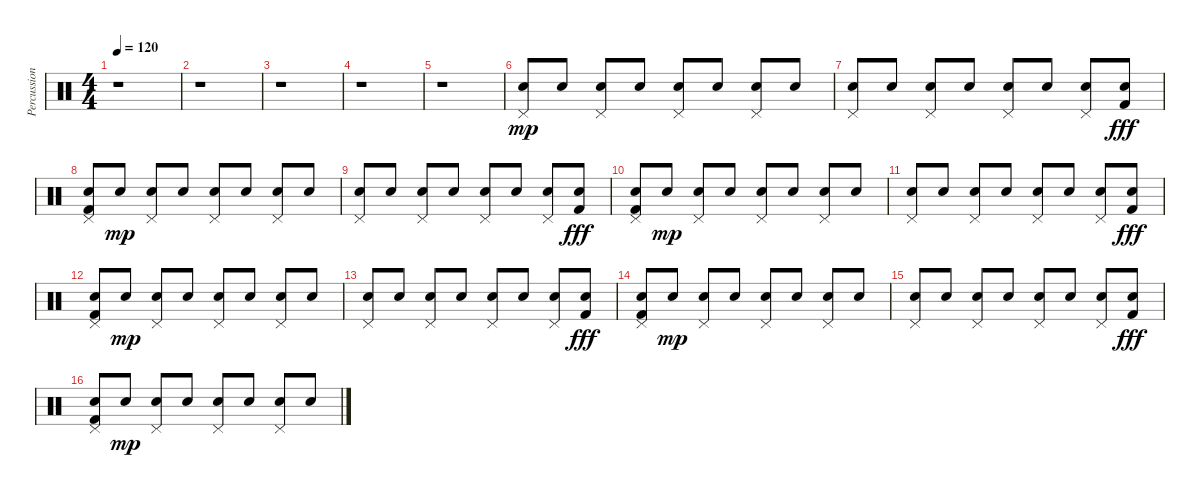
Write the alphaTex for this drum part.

\track ("Percussion" "Percussion") {instrument percussion}
\staff {score}
\articulation defaults
\ts (4 4)
\tempo 120
\clef neutral
\ks c
r.1{dy mp} |
r.1 |
r.1 |
r.1 |
r.1 |
("Pedal Hi-Hat (hit)" "Electric Snare (hit)").8 "Electric Snare (hit)".8 ("Pedal Hi-Hat (hit)" "Electric Snare (hit)").8 "Electric Snare (hit)".8 ("Pedal Hi-Hat (hit)" "Electric Snare (hit)").8 "Electric Snare (hit)".8 ("Pedal Hi-Hat (hit)" "Electric Snare (hit)").8 "Electric Snare (hit)".8 |
("Pedal Hi-Hat (hit)" "Electric Snare (hit)").8 "Electric Snare (hit)".8 ("Pedal Hi-Hat (hit)" "Electric Snare (hit)").8 "Electric Snare (hit)".8 ("Pedal Hi-Hat (hit)" "Electric Snare (hit)").8 "Electric Snare (hit)".8 ("Pedal Hi-Hat (hit)" "Electric Snare (hit)").8 ("Electric Snare (hit)" "Kick (hit) 2").8{dy fff} |
("Pedal Hi-Hat (hit)" "Electric Snare (hit)" "Kick (hit) 2").8 "Electric Snare (hit)".8{dy mp} ("Pedal Hi-Hat (hit)" "Electric Snare (hit)").8 "Electric Snare (hit)".8 ("Pedal Hi-Hat (hit)" "Electric Snare (hit)").8 "Electric Snare (hit)".8 ("Pedal Hi-Hat (hit)" "Electric Snare (hit)").8 "Electric Snare (hit)".8 |
("Pedal Hi-Hat (hit)" "Electric Snare (hit)").8 "Electric Snare (hit)".8 ("Pedal Hi-Hat (hit)" "Electric Snare (hit)").8 "Electric Snare (hit)".8 ("Pedal Hi-Hat (hit)" "Electric Snare (hit)").8 "Electric Snare (hit)".8 ("Pedal Hi-Hat (hit)" "Electric Snare (hit)").8 ("Electric Snare (hit)" "Kick (hit) 2").8{dy fff} |
("Pedal Hi-Hat (hit)" "Electric Snare (hit)" "Kick (hit) 2").8 "Electric Snare (hit)".8{dy mp} ("Pedal Hi-Hat (hit)" "Electric Snare (hit)").8 "Electric Snare (hit)".8 ("Pedal Hi-Hat (hit)" "Electric Snare (hit)").8 "Electric Snare (hit)".8 ("Pedal Hi-Hat (hit)" "Electric Snare (hit)").8 "Electric Snare (hit)".8 |
("Pedal Hi-Hat (hit)" "Electric Snare (hit)").8 "Electric Snare (hit)".8 ("Pedal Hi-Hat (hit)" "Electric Snare (hit)").8 "Electric Snare (hit)".8 ("Pedal Hi-Hat (hit)" "Electric Snare (hit)").8 "Electric Snare (hit)".8 ("Pedal Hi-Hat (hit)" "Electric Snare (hit)").8 ("Electric Snare (hit)" "Kick (hit) 2").8{dy fff} |
("Pedal Hi-Hat (hit)" "Electric Snare (hit)" "Kick (hit) 2").8 "Electric Snare (hit)".8{dy mp} ("Pedal Hi-Hat (hit)" "Electric Snare (hit)").8 "Electric Snare (hit)".8 ("Pedal Hi-Hat (hit)" "Electric Snare (hit)").8 "Electric Snare (hit)".8 ("Pedal Hi-Hat (hit)" "Electric Snare (hit)").8 "Electric Snare (hit)".8 |
("Pedal Hi-Hat (hit)" "Electric Snare (hit)").8 "Electric Snare (hit)".8 ("Pedal Hi-Hat (hit)" "Electric Snare (hit)").8 "Electric Snare (hit)".8 ("Pedal Hi-Hat (hit)" "Electric Snare (hit)").8 "Electric Snare (hit)".8 ("Pedal Hi-Hat (hit)" "Electric Snare (hit)").8 ("Electric Snare (hit)" "Kick (hit) 2").8{dy fff} |
("Pedal Hi-Hat (hit)" "Electric Snare (hit)" "Kick (hit) 2").8 "Electric Snare (hit)".8{dy mp} ("Pedal Hi-Hat (hit)" "Electric Snare (hit)").8 "Electric Snare (hit)".8 ("Pedal Hi-Hat (hit)" "Electric Snare (hit)").8 "Electric Snare (hit)".8 ("Pedal Hi-Hat (hit)" "Electric Snare (hit)").8 "Electric Snare (hit)".8 |
("Pedal Hi-Hat (hit)" "Electric Snare (hit)").8 "Electric Snare (hit)".8 ("Pedal Hi-Hat (hit)" "Electric Snare (hit)").8 "Electric Snare (hit)".8 ("Pedal Hi-Hat (hit)" "Electric Snare (hit)").8 "Electric Snare (hit)".8 ("Pedal Hi-Hat (hit)" "Electric Snare (hit)").8 ("Electric Snare (hit)" "Kick (hit) 2").8{dy fff} |
("Pedal Hi-Hat (hit)" "Electric Snare (hit)" "Kick (hit) 2").8 "Electric Snare (hit)".8{dy mp} ("Pedal Hi-Hat (hit)" "Electric Snare (hit)").8 "Electric Snare (hit)".8 ("Pedal Hi-Hat (hit)" "Electric Snare (hit)").8 "Electric Snare (hit)".8 ("Pedal Hi-Hat (hit)" "Electric Snare (hit)").8 "Electric Snare (hit)".8
